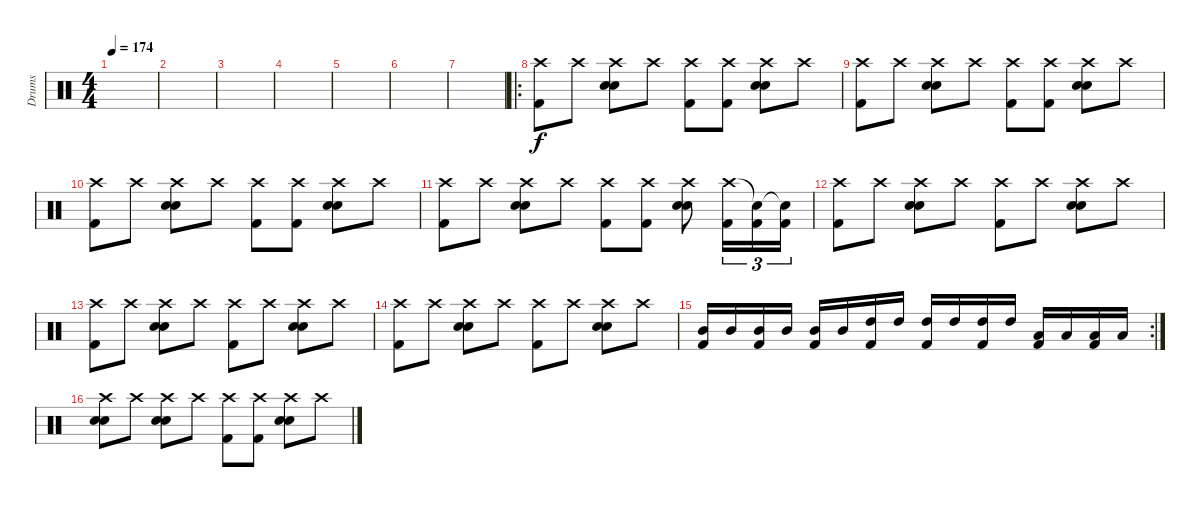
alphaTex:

\track ("Drums" "Drums") {instrument percussion}
\staff {score}
\articulation defaults
\ts (4 4)
\tempo 174
\clef neutral
\ks c
|
|
|
|
|
|
|
\ro
("Crash high (hit)" "Kick (hit) 2").8 "Crash high (hit)".8 ("Crash high (hit)" "Electric Snare (hit)" "Electric Snare (hit)").8 "Crash high (hit)".8 ("Crash high (hit)" "Kick (hit) 2").8 ("Crash high (hit)" "Kick (hit) 2").8 ("Crash high (hit)" "Electric Snare (hit)" "Electric Snare (hit)").8 "Crash high (hit)".8 |
("Crash high (hit)" "Kick (hit) 2").8 "Crash high (hit)".8 ("Crash high (hit)" "Electric Snare (hit)" "Electric Snare (hit)").8 "Crash high (hit)".8 ("Crash high (hit)" "Kick (hit) 2").8 ("Crash high (hit)" "Kick (hit) 2").8 ("Crash high (hit)" "Electric Snare (hit)" "Electric Snare (hit)").8 "Crash high (hit)".8 |
("Crash high (hit)" "Kick (hit) 2").8 "Crash high (hit)".8 ("Crash high (hit)" "Electric Snare (hit)" "Electric Snare (hit)").8 "Crash high (hit)".8 ("Crash high (hit)" "Kick (hit) 2").8 ("Crash high (hit)" "Kick (hit) 2").8 ("Crash high (hit)" "Electric Snare (hit)" "Electric Snare (hit)").8 "Crash high (hit)".8 |
("Crash high (hit)" "Kick (hit) 2").8 "Crash high (hit)".8 ("Crash high (hit)" "Electric Snare (hit)" "Electric Snare (hit)").8 "Crash high (hit)".8 ("Crash high (hit)" "Kick (hit) 2").8 ("Crash high (hit)" "Kick (hit) 2").8 ("Crash high (hit)" "Electric Snare (hit)" "Electric Snare (hit)").8 ("Crash high (hit)" "Kick (hit) 2").16{tu (3 2)} ("Snare (hit)"{t} "Kick (hit) 2").16{tu (3 2)} ("Snare (hit)"{t} "Kick (hit) 2").16{tu (3 2)} |
("Crash high (hit)" "Kick (hit) 2").8 "Crash high (hit)".8 ("Crash high (hit)" "Electric Snare (hit)" "Electric Snare (hit)").8 "Crash high (hit)".8 ("Crash high (hit)" "Kick (hit) 2").8 "Crash high (hit)".8 ("Crash high (hit)" "Electric Snare (hit)" "Electric Snare (hit)").8 "Crash high (hit)".8 |
("Crash high (hit)" "Kick (hit) 2").8 "Crash high (hit)".8 ("Crash high (hit)" "Electric Snare (hit)" "Electric Snare (hit)").8 "Crash high (hit)".8 ("Crash high (hit)" "Kick (hit) 2").8 "Crash high (hit)".8 ("Crash high (hit)" "Electric Snare (hit)" "Electric Snare (hit)").8 "Crash high (hit)".8 |
("Crash high (hit)" "Kick (hit) 2").8 "Crash high (hit)".8 ("Crash high (hit)" "Electric Snare (hit)" "Electric Snare (hit)").8 "Crash high (hit)".8 ("Crash high (hit)" "Kick (hit) 2").8 "Crash high (hit)".8 ("Crash high (hit)" "Electric Snare (hit)" "Electric Snare (hit)").8 "Crash high (hit)".8 |
\rc 2
("Mid Tom (hit)" "Kick (hit) 2").16 "Mid Tom (hit)".16 ("Mid Tom (hit)" "Kick (hit) 2").16 "Mid Tom (hit)".16 ("Mid Tom (hit)" "Kick (hit) 2").16 "Mid Tom (hit)".16 ("High Tom (hit)" "Kick (hit) 2").16 "High Tom (hit)".16 ("High Tom (hit)" "Kick (hit) 2").16 "High Tom (hit)".16 ("High Tom (hit)" "Kick (hit) 2").16 "High Tom (hit)".16 ("Low Tom (hit)" "Kick (hit) 2").16 "Low Tom (hit)".16 ("Low Tom (hit)" "Kick (hit) 2").16 "Low Tom (hit)".16 |
("Crash high (hit)" "Electric Snare (hit)" "Electric Snare (hit)").8 "Crash high (hit)".8 ("Crash high (hit)" "Electric Snare (hit)" "Electric Snare (hit)").8 "Crash high (hit)".8 ("Crash high (hit)" "Kick (hit) 2").8 ("Crash high (hit)" "Kick (hit) 2").8 ("Crash high (hit)" "Electric Snare (hit)" "Electric Snare (hit)").8 "Crash high (hit)".8
